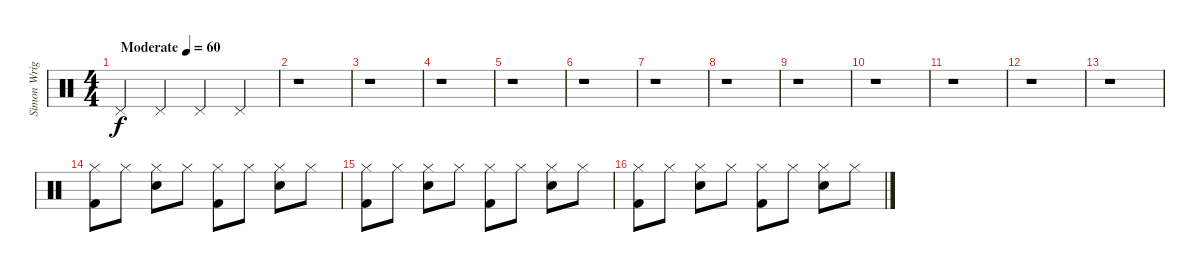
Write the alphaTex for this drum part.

\track ("Simon Wright" "Simon Wrig") {instrument percussion}
\staff {score}
\articulation defaults
\ts (4 4)
\tempo (60 "Moderate")
\clef neutral
\ks c "Pedal Hi-Hat (hit)".4{dy f} "Pedal Hi-Hat (hit)".4 "Pedal Hi-Hat (hit)".4 "Pedal Hi-Hat (hit)".4
|
r.1 |
r.1 |
r.1 |
r.1 |
r.1 |
r.1 |
r.1 |
r.1 |
r.1 |
r.1 |
r.1 |
r.1 |
("Hi-Hat (closed)" "Kick (hit) 2").8 "Hi-Hat (closed)".8 ("Hi-Hat (closed)" "Snare (hit) 2").8 "Hi-Hat (closed)".8 ("Hi-Hat (closed)" "Kick (hit) 2").8 "Hi-Hat (closed)".8 ("Hi-Hat (closed)" "Snare (hit) 2").8 "Hi-Hat (closed)".8 |
("Hi-Hat (closed)" "Kick (hit) 2").8 "Hi-Hat (closed)".8 ("Hi-Hat (closed)" "Snare (hit) 2").8 "Hi-Hat (closed)".8 ("Hi-Hat (closed)" "Kick (hit) 2").8 "Hi-Hat (closed)".8 ("Hi-Hat (closed)" "Snare (hit) 2").8 "Hi-Hat (closed)".8 |
("Hi-Hat (closed)" "Kick (hit) 2").8 "Hi-Hat (closed)".8 ("Hi-Hat (closed)" "Snare (hit) 2").8 "Hi-Hat (closed)".8 ("Hi-Hat (closed)" "Kick (hit) 2").8 "Hi-Hat (closed)".8 ("Hi-Hat (closed)" "Snare (hit) 2").8 "Hi-Hat (closed)".8
